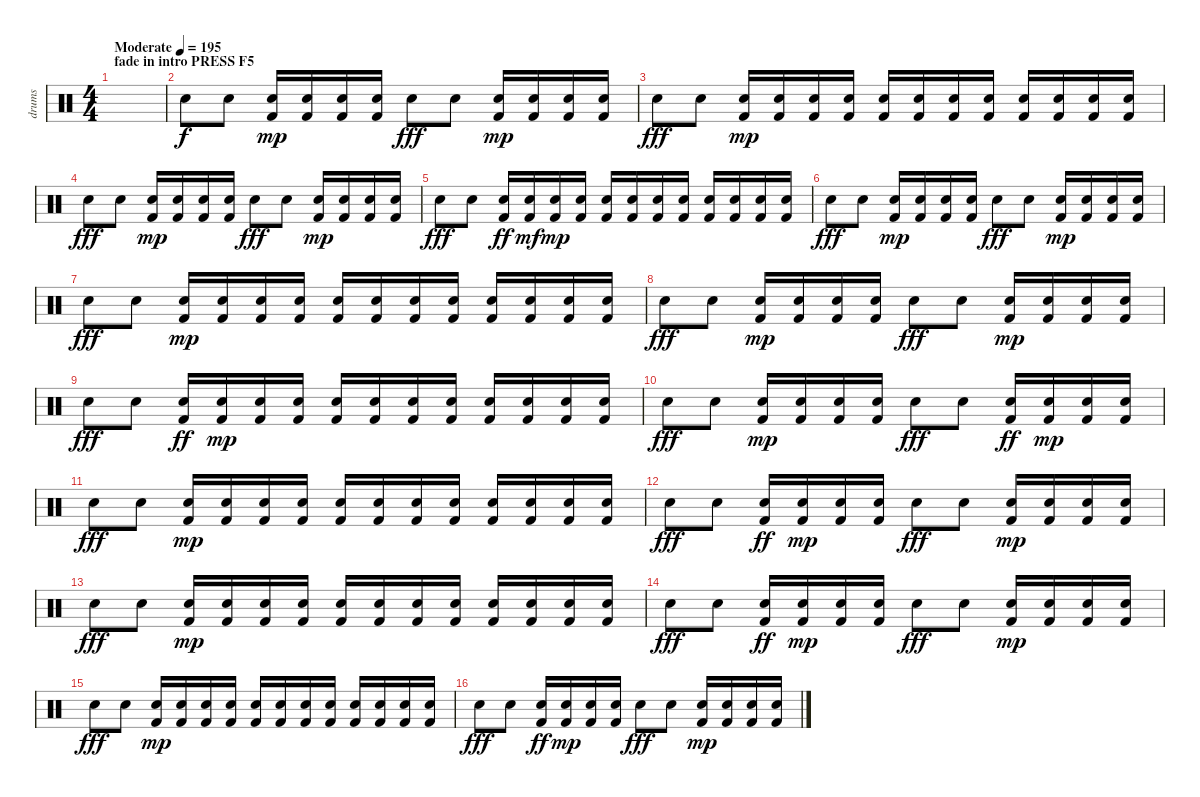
\track ("drums" "drums") {instrument percussion bank 16}
\staff {score}
\articulation defaults
\ts (4 4)
\section ("" "fade in intro PRESS F5")
\tempo (195 "Moderate")
\clef neutral
\ks c
|
"Electric Snare (hit)".8{volume 10} "Electric Snare (hit)".8 ("Electric Snare (hit)" "Kick (hit) 2").16{dy mp} ("Electric Snare (hit)" "Kick (hit) 2").16 ("Electric Snare (hit)" "Kick (hit) 2").16 ("Electric Snare (hit)" "Kick (hit) 2").16 "Electric Snare (hit)".8{dy fff} "Electric Snare (hit)".8 ("Electric Snare (hit)" "Kick (hit) 2").16{dy mp} ("Electric Snare (hit)" "Kick (hit) 2").16 ("Electric Snare (hit)" "Kick (hit) 2").16 ("Electric Snare (hit)" "Kick (hit) 2").16 |
"Electric Snare (hit)".8{dy fff} "Electric Snare (hit)".8 ("Electric Snare (hit)" "Kick (hit) 2").16{dy mp} ("Electric Snare (hit)" "Kick (hit) 2").16 ("Electric Snare (hit)" "Kick (hit) 2").16 ("Electric Snare (hit)" "Kick (hit) 2").16 ("Electric Snare (hit)" "Kick (hit) 2").16 ("Electric Snare (hit)" "Kick (hit) 2").16 ("Electric Snare (hit)" "Kick (hit) 2").16 ("Electric Snare (hit)" "Kick (hit) 2").16 ("Electric Snare (hit)" "Kick (hit) 2").16 ("Electric Snare (hit)" "Kick (hit) 2").16 ("Electric Snare (hit)" "Kick (hit) 2").16 ("Electric Snare (hit)" "Kick (hit) 2").16 |
"Electric Snare (hit)".8{dy fff} "Electric Snare (hit)".8 ("Electric Snare (hit)" "Kick (hit) 2").16{dy mp} ("Electric Snare (hit)" "Kick (hit) 2").16 ("Electric Snare (hit)" "Kick (hit) 2").16 ("Electric Snare (hit)" "Kick (hit) 2").16 "Electric Snare (hit)".8{dy fff} "Electric Snare (hit)".8 ("Electric Snare (hit)" "Kick (hit) 2").16{dy mp} ("Electric Snare (hit)" "Kick (hit) 2").16 ("Electric Snare (hit)" "Kick (hit) 2").16 ("Electric Snare (hit)" "Kick (hit) 2").16 |
"Electric Snare (hit)".8{dy fff} "Electric Snare (hit)".8 ("Electric Snare (hit)" "Kick (hit) 2").16{dy ff} ("Electric Snare (hit)" "Kick (hit) 2").16{dy mf} ("Electric Snare (hit)" "Kick (hit) 2").16{dy mp} ("Electric Snare (hit)" "Kick (hit) 2").16 ("Electric Snare (hit)" "Kick (hit) 2").16 ("Electric Snare (hit)" "Kick (hit) 2").16 ("Electric Snare (hit)" "Kick (hit) 2").16 ("Electric Snare (hit)" "Kick (hit) 2").16 ("Electric Snare (hit)" "Kick (hit) 2").16 ("Electric Snare (hit)" "Kick (hit) 2").16 ("Electric Snare (hit)" "Kick (hit) 2").16 ("Electric Snare (hit)" "Kick (hit) 2").16 |
"Electric Snare (hit)".8{dy fff volume 11} "Electric Snare (hit)".8 ("Electric Snare (hit)" "Kick (hit) 2").16{dy mp} ("Electric Snare (hit)" "Kick (hit) 2").16 ("Electric Snare (hit)" "Kick (hit) 2").16 ("Electric Snare (hit)" "Kick (hit) 2").16 "Electric Snare (hit)".8{dy fff} "Electric Snare (hit)".8 ("Electric Snare (hit)" "Kick (hit) 2").16{dy mp} ("Electric Snare (hit)" "Kick (hit) 2").16 ("Electric Snare (hit)" "Kick (hit) 2").16 ("Electric Snare (hit)" "Kick (hit) 2").16 |
"Electric Snare (hit)".8{dy fff} "Electric Snare (hit)".8 ("Electric Snare (hit)" "Kick (hit) 2").16{dy mp} ("Electric Snare (hit)" "Kick (hit) 2").16 ("Electric Snare (hit)" "Kick (hit) 2").16 ("Electric Snare (hit)" "Kick (hit) 2").16 ("Electric Snare (hit)" "Kick (hit) 2").16 ("Electric Snare (hit)" "Kick (hit) 2").16 ("Electric Snare (hit)" "Kick (hit) 2").16 ("Electric Snare (hit)" "Kick (hit) 2").16 ("Electric Snare (hit)" "Kick (hit) 2").16 ("Electric Snare (hit)" "Kick (hit) 2").16 ("Electric Snare (hit)" "Kick (hit) 2").16 ("Electric Snare (hit)" "Kick (hit) 2").16 |
"Electric Snare (hit)".8{dy fff} "Electric Snare (hit)".8 ("Electric Snare (hit)" "Kick (hit) 2").16{dy mp} ("Electric Snare (hit)" "Kick (hit) 2").16 ("Electric Snare (hit)" "Kick (hit) 2").16 ("Electric Snare (hit)" "Kick (hit) 2").16 "Electric Snare (hit)".8{dy fff} "Electric Snare (hit)".8 ("Electric Snare (hit)" "Kick (hit) 2").16{dy mp} ("Electric Snare (hit)" "Kick (hit) 2").16 ("Electric Snare (hit)" "Kick (hit) 2").16 ("Electric Snare (hit)" "Kick (hit) 2").16 |
"Electric Snare (hit)".8{dy fff} "Electric Snare (hit)".8 ("Electric Snare (hit)" "Kick (hit) 2").16{dy ff} ("Electric Snare (hit)" "Kick (hit) 2").16{dy mp} ("Electric Snare (hit)" "Kick (hit) 2").16 ("Electric Snare (hit)" "Kick (hit) 2").16 ("Electric Snare (hit)" "Kick (hit) 2").16 ("Electric Snare (hit)" "Kick (hit) 2").16 ("Electric Snare (hit)" "Kick (hit) 2").16 ("Electric Snare (hit)" "Kick (hit) 2").16 ("Electric Snare (hit)" "Kick (hit) 2").16 ("Electric Snare (hit)" "Kick (hit) 2").16 ("Electric Snare (hit)" "Kick (hit) 2").16 ("Electric Snare (hit)" "Kick (hit) 2").16 |
"Electric Snare (hit)".8{dy fff volume 14} "Electric Snare (hit)".8 ("Electric Snare (hit)" "Kick (hit) 2").16{dy mp} ("Electric Snare (hit)" "Kick (hit) 2").16 ("Electric Snare (hit)" "Kick (hit) 2").16 ("Electric Snare (hit)" "Kick (hit) 2").16 "Electric Snare (hit)".8{dy fff} "Electric Snare (hit)".8 ("Electric Snare (hit)" "Kick (hit) 2").16{dy ff} ("Electric Snare (hit)" "Kick (hit) 2").16{dy mp} ("Electric Snare (hit)" "Kick (hit) 2").16 ("Electric Snare (hit)" "Kick (hit) 2").16 |
"Electric Snare (hit)".8{dy fff} "Electric Snare (hit)".8 ("Electric Snare (hit)" "Kick (hit) 2").16{dy mp} ("Electric Snare (hit)" "Kick (hit) 2").16 ("Electric Snare (hit)" "Kick (hit) 2").16 ("Electric Snare (hit)" "Kick (hit) 2").16 ("Electric Snare (hit)" "Kick (hit) 2").16 ("Electric Snare (hit)" "Kick (hit) 2").16 ("Electric Snare (hit)" "Kick (hit) 2").16 ("Electric Snare (hit)" "Kick (hit) 2").16 ("Electric Snare (hit)" "Kick (hit) 2").16 ("Electric Snare (hit)" "Kick (hit) 2").16 ("Electric Snare (hit)" "Kick (hit) 2").16 ("Electric Snare (hit)" "Kick (hit) 2").16 |
"Electric Snare (hit)".8{dy fff} "Electric Snare (hit)".8 ("Electric Snare (hit)" "Kick (hit) 2").16{dy ff} ("Electric Snare (hit)" "Kick (hit) 2").16{dy mp} ("Electric Snare (hit)" "Kick (hit) 2").16 ("Electric Snare (hit)" "Kick (hit) 2").16 "Electric Snare (hit)".8{dy fff} "Electric Snare (hit)".8 ("Electric Snare (hit)" "Kick (hit) 2").16{dy mp} ("Electric Snare (hit)" "Kick (hit) 2").16 ("Electric Snare (hit)" "Kick (hit) 2").16 ("Electric Snare (hit)" "Kick (hit) 2").16 |
"Electric Snare (hit)".8{dy fff} "Electric Snare (hit)".8 ("Electric Snare (hit)" "Kick (hit) 2").16{dy mp} ("Electric Snare (hit)" "Kick (hit) 2").16 ("Electric Snare (hit)" "Kick (hit) 2").16 ("Electric Snare (hit)" "Kick (hit) 2").16 ("Electric Snare (hit)" "Kick (hit) 2").16 ("Electric Snare (hit)" "Kick (hit) 2").16 ("Electric Snare (hit)" "Kick (hit) 2").16 ("Electric Snare (hit)" "Kick (hit) 2").16 ("Electric Snare (hit)" "Kick (hit) 2").16 ("Electric Snare (hit)" "Kick (hit) 2").16 ("Electric Snare (hit)" "Kick (hit) 2").16 ("Electric Snare (hit)" "Kick (hit) 2").16 |
"Electric Snare (hit)".8{dy fff} "Electric Snare (hit)".8 ("Electric Snare (hit)" "Kick (hit) 2").16{dy ff} ("Electric Snare (hit)" "Kick (hit) 2").16{dy mp} ("Electric Snare (hit)" "Kick (hit) 2").16 ("Electric Snare (hit)" "Kick (hit) 2").16 "Electric Snare (hit)".8{dy fff} "Electric Snare (hit)".8 ("Electric Snare (hit)" "Kick (hit) 2").16{dy mp} ("Electric Snare (hit)" "Kick (hit) 2").16 ("Electric Snare (hit)" "Kick (hit) 2").16 ("Electric Snare (hit)" "Kick (hit) 2").16 |
"Electric Snare (hit)".8{dy fff} "Electric Snare (hit)".8 ("Electric Snare (hit)" "Kick (hit) 2").16{dy mp} ("Electric Snare (hit)" "Kick (hit) 2").16 ("Electric Snare (hit)" "Kick (hit) 2").16 ("Electric Snare (hit)" "Kick (hit) 2").16 ("Electric Snare (hit)" "Kick (hit) 2").16 ("Electric Snare (hit)" "Kick (hit) 2").16 ("Electric Snare (hit)" "Kick (hit) 2").16 ("Electric Snare (hit)" "Kick (hit) 2").16 ("Electric Snare (hit)" "Kick (hit) 2").16 ("Electric Snare (hit)" "Kick (hit) 2").16 ("Electric Snare (hit)" "Kick (hit) 2").16 ("Electric Snare (hit)" "Kick (hit) 2").16 |
"Electric Snare (hit)".8{dy fff} "Electric Snare (hit)".8 ("Electric Snare (hit)" "Kick (hit) 2").16{dy ff} ("Electric Snare (hit)" "Kick (hit) 2").16{dy mp} ("Electric Snare (hit)" "Kick (hit) 2").16 ("Electric Snare (hit)" "Kick (hit) 2").16 "Electric Snare (hit)".8{dy fff} "Electric Snare (hit)".8 ("Electric Snare (hit)" "Kick (hit) 2").16{dy mp} ("Electric Snare (hit)" "Kick (hit) 2").16 ("Electric Snare (hit)" "Kick (hit) 2").16 ("Electric Snare (hit)" "Kick (hit) 2").16
